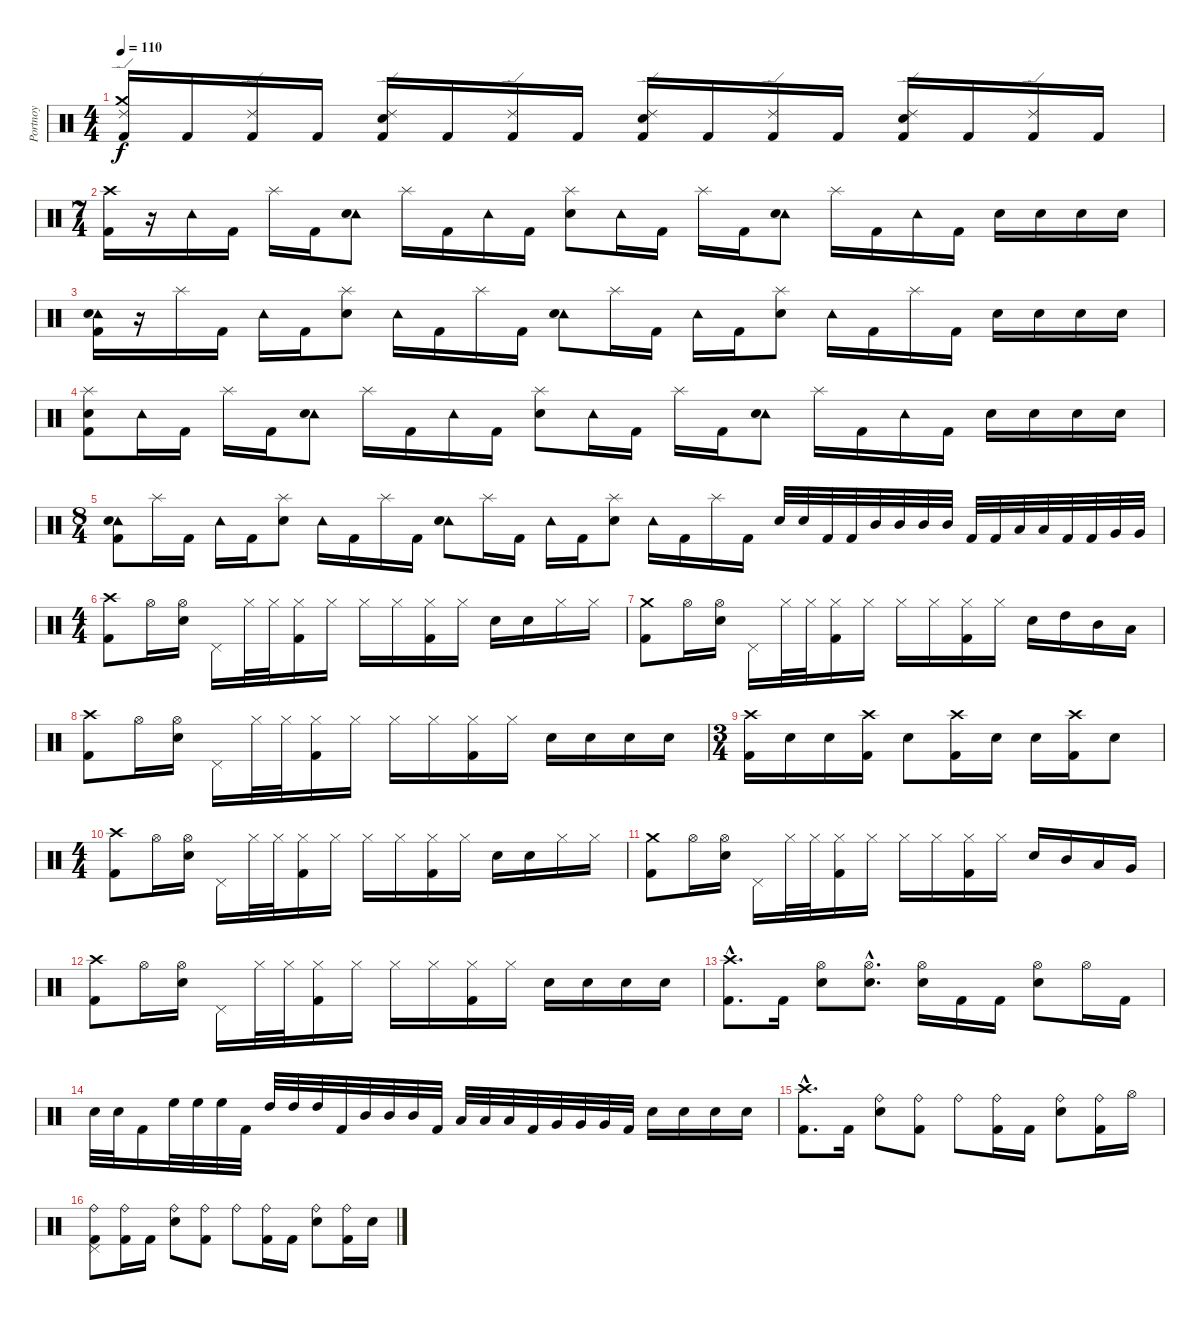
\track ("Portnoy" "Portnoy") {instrument percussion}
\staff {score}
\articulation defaults
\ts (4 4)
\tempo 110
\clef neutral
\ks c
("Kick (hit) 2" "Crash medium (hit)" "Ride (edge) 2").16{dy f} "Kick (hit) 2".16 ("Kick (hit) 2" "Ride (edge) 2").16 "Kick (hit) 2".16 ("Kick (hit) 2" "Ride (edge) 2" "Snare (hit) 2").16 "Kick (hit) 2".16 ("Kick (hit) 2" "Ride (edge) 2").16 "Kick (hit) 2".16 ("Kick (hit) 2" "Ride (edge) 2" "Snare (hit) 2").16 "Kick (hit) 2".16 ("Kick (hit) 2" "Ride (edge) 2").16 "Kick (hit) 2".16 ("Kick (hit) 2" "Ride (edge) 2" "Snare (hit) 2").16 "Kick (hit) 2".16 ("Kick (hit) 2" "Ride (edge) 2").16 "Kick (hit) 2".16 |
\ts (7 4)
("Kick (hit) 2" "Crash high (hit)").16 r.16 "Tambourine (hit)".16 "Kick (hit) 2".16 "Splash (hit)".16 "Kick (hit) 2".16 ("Tambourine (hit)" "Snare (hit) 2").8 "Splash (hit)".16 "Kick (hit) 2".16 "Tambourine (hit)".16 "Kick (hit) 2".16 ("Splash (hit)" "Snare (hit) 2").8 "Tambourine (hit)".16 "Kick (hit) 2".16 "Splash (hit)".16 "Kick (hit) 2".16 ("Tambourine (hit)" "Snare (hit) 2").8 "Splash (hit)".16 "Kick (hit) 2".16 "Tambourine (hit)".16 "Kick (hit) 2".16 "Snare (hit) 2".16 "Snare (hit) 2".16 "Snare (hit) 2".16 "Snare (hit) 2".16 |
("Kick (hit) 2" "Tambourine (hit)" "Snare (hit) 2").16 r.16 "Splash (hit)".16 "Kick (hit) 2".16 "Tambourine (hit)".16 "Kick (hit) 2".16 ("Splash (hit)" "Snare (hit) 2").8 "Tambourine (hit)".16 "Kick (hit) 2".16 "Splash (hit)".16 "Kick (hit) 2".16 ("Tambourine (hit)" "Snare (hit) 2").8 "Splash (hit)".16 "Kick (hit) 2".16 "Tambourine (hit)".16 "Kick (hit) 2".16 ("Splash (hit)" "Snare (hit) 2").8 "Tambourine (hit)".16 "Kick (hit) 2".16 "Splash (hit)".16 "Kick (hit) 2".16 "Snare (hit) 2".16 "Snare (hit) 2".16 "Snare (hit) 2".16 "Snare (hit) 2".16 |
("Kick (hit) 2" "Splash (hit)" "Snare (hit) 2").8 "Tambourine (hit)".16 "Kick (hit) 2".16 "Splash (hit)".16 "Kick (hit) 2".16 ("Tambourine (hit)" "Snare (hit) 2").8 "Splash (hit)".16 "Kick (hit) 2".16 "Tambourine (hit)".16 "Kick (hit) 2".16 ("Splash (hit)" "Snare (hit) 2").8 "Tambourine (hit)".16 "Kick (hit) 2".16 "Splash (hit)".16 "Kick (hit) 2".16 ("Tambourine (hit)" "Snare (hit) 2").8 "Splash (hit)".16 "Kick (hit) 2".16 "Tambourine (hit)".16 "Kick (hit) 2".16 "Snare (hit) 2".16 "Snare (hit) 2".16 "Snare (hit) 2".16 "Snare (hit) 2".16 |
\ts (8 4)
("Kick (hit) 2" "Tambourine (hit)" "Snare (hit) 2").8 "Splash (hit)".16 "Kick (hit) 2".16 "Tambourine (hit)".16 "Kick (hit) 2".16 ("Splash (hit)" "Snare (hit) 2").8 "Tambourine (hit)".16 "Kick (hit) 2".16 "Splash (hit)".16 "Kick (hit) 2".16 ("Tambourine (hit)" "Snare (hit) 2").8 "Splash (hit)".16 "Kick (hit) 2".16 "Tambourine (hit)".16 "Kick (hit) 2".16 ("Splash (hit)" "Snare (hit) 2").8 "Tambourine (hit)".16 "Kick (hit) 2".16 "Splash (hit)".16 "Kick (hit) 2".16 "Snare (hit) 2".32 "Snare (hit) 2".32 "Kick (hit) 2".32 "Kick (hit) 2".32 "Mid Tom (hit)".32 "Mid Tom (hit)".32 "Mid Tom (hit)".32 "Mid Tom (hit)".32 "Kick (hit) 2".32 "Kick (hit) 2".32 "Low Tom (hit)".32 "Low Tom (hit)".32 "Kick (hit) 2".32 "Kick (hit) 2".32 "Very Low Tom (hit)".32 "Very Low Tom (hit)".32 |
\ts (4 4)
("Kick (hit) 2" "Crash high (hit)").8 "Hi-Hat (open)".16 ("Hi-Hat (open)" "Snare (hit) 2").16 "Pedal Hi-Hat (hit)".16 "Hi-Hat (closed)".32 "Hi-Hat (closed)".32 ("Kick (hit) 2" "Hi-Hat (closed)").16 "Hi-Hat (closed)".16 "Hi-Hat (closed)".16 "Hi-Hat (closed)".16 ("Kick (hit) 2" "Hi-Hat (closed)").16 "Hi-Hat (closed)".16 "Snare (hit) 2".16 "Snare (hit) 2".16 "Hi-Hat (closed)".16 "Hi-Hat (closed)".16 |
("Kick (hit) 2" "Crash medium (hit)").8 "Hi-Hat (open)".16 ("Hi-Hat (open)" "Snare (hit) 2").16 "Pedal Hi-Hat (hit)".16 "Hi-Hat (closed)".32 "Hi-Hat (closed)".32 ("Kick (hit) 2" "Hi-Hat (closed)").16 "Hi-Hat (closed)".16 "Hi-Hat (closed)".16 "Hi-Hat (closed)".16 ("Kick (hit) 2" "Hi-Hat (closed)").16 "Hi-Hat (closed)".16 "Snare (hit) 2".16 "High Tom (hit)".16 "Mid Tom (hit)".16 "Low Tom (hit)".16 |
("Kick (hit) 2" "Crash high (hit)").8 "Hi-Hat (open)".16 ("Hi-Hat (open)" "Snare (hit) 2").16 "Pedal Hi-Hat (hit)".16 "Hi-Hat (closed)".32 "Hi-Hat (closed)".32 ("Kick (hit) 2" "Hi-Hat (closed)").16 "Hi-Hat (closed)".16 "Hi-Hat (closed)".16 "Hi-Hat (closed)".16 ("Kick (hit) 2" "Hi-Hat (closed)").16 "Hi-Hat (closed)".16 "Snare (hit) 2".16 "Snare (hit) 2".16 "Snare (hit) 2".16 "Snare (hit) 2".16 |
\ts (3 4)
("Kick (hit) 2" "Crash high (hit)").16 "Snare (hit) 2".16 "Snare (hit) 2".16 ("Kick (hit) 2" "Crash high (hit)").16 "Snare (hit) 2".8 ("Kick (hit) 2" "Crash high (hit)").16 "Snare (hit) 2".16 "Snare (hit) 2".16 ("Kick (hit) 2" "Crash high (hit)").16 "Snare (hit) 2".8 |
\ts (4 4)
("Kick (hit) 2" "Crash high (hit)").8 "Hi-Hat (open)".16 ("Hi-Hat (open)" "Snare (hit) 2").16 "Pedal Hi-Hat (hit)".16 "Hi-Hat (closed)".32 "Hi-Hat (closed)".32 ("Kick (hit) 2" "Hi-Hat (closed)").16 "Hi-Hat (closed)".16 "Hi-Hat (closed)".16 "Hi-Hat (closed)".16 ("Kick (hit) 2" "Hi-Hat (closed)").16 "Hi-Hat (closed)".16 "Snare (hit) 2".16 "Snare (hit) 2".16 "Hi-Hat (closed)".16 "Hi-Hat (closed)".16 |
("Kick (hit) 2" "Crash medium (hit)").8 "Hi-Hat (open)".16 ("Hi-Hat (open)" "Snare (hit) 2").16 "Pedal Hi-Hat (hit)".16 "Hi-Hat (closed)".32 "Hi-Hat (closed)".32 ("Kick (hit) 2" "Hi-Hat (closed)").16 "Hi-Hat (closed)".16 "Hi-Hat (closed)".16 "Hi-Hat (closed)".16 ("Kick (hit) 2" "Hi-Hat (closed)").16 "Hi-Hat (closed)".16 "Snare (hit) 2".16 "Mid Tom (hit)".16 "Low Tom (hit)".16 "Very Low Tom (hit)".16 |
("Kick (hit) 2" "Crash high (hit)").8 "Hi-Hat (open)".16 ("Hi-Hat (open)" "Snare (hit) 2").16 "Pedal Hi-Hat (hit)".16 "Hi-Hat (closed)".32 "Hi-Hat (closed)".32 ("Kick (hit) 2" "Hi-Hat (closed)").16 "Hi-Hat (closed)".16 "Hi-Hat (closed)".16 "Hi-Hat (closed)".16 ("Kick (hit) 2" "Hi-Hat (closed)").16 "Hi-Hat (closed)".16 "Snare (hit) 2".16 "Snare (hit) 2".16 "Snare (hit) 2".16 "Snare (hit) 2".16 |
("Kick (hit) 2"{hac} "Crash high (hit)"{hac}).8{d} "Kick (hit) 2".16 ("Hi-Hat (open)" "Snare (hit) 2").8 ("Hi-Hat (open)"{hac} "Snare (hit) 2"{hac}).8{d} ("Hi-Hat (open)" "Snare (hit) 2").16 "Kick (hit) 2".16 "Kick (hit) 2".16 ("Hi-Hat (open)" "Snare (hit) 2").8 "Hi-Hat (open)".16 "Kick (hit) 2".16 |
"Snare (hit) 2".32 "Snare (hit) 2".32 "Kick (hit) 2".16 "High Floor Tom (hit)".32 "High Floor Tom (hit)".32 "High Floor Tom (hit)".32 "Kick (hit) 2".32 "High Tom (hit)".32 "High Tom (hit)".32 "High Tom (hit)".32 "Kick (hit) 2".32 "Mid Tom (hit)".32 "Mid Tom (hit)".32 "Mid Tom (hit)".32 "Kick (hit) 2".32 "Low Tom (hit)".32 "Low Tom (hit)".32 "Low Tom (hit)".32 "Kick (hit) 2".32 "Very Low Tom (hit)".32 "Very Low Tom (hit)".32 "Very Low Tom (hit)".32 "Kick (hit) 2".32 "Snare (hit) 2".16 "Snare (hit) 2".16 "Snare (hit) 2".16 "Snare (hit) 2".16 |
("Kick (hit) 2"{hac} "Crash high (hit)"{hac}).8{d} "Kick (hit) 2".16 ("Ride (bell)" "Snare (hit) 2").8 ("Kick (hit) 2" "Ride (bell)").8 "Ride (bell)".8 ("Kick (hit) 2" "Ride (bell)").16 "Kick (hit) 2".16 ("Ride (bell)" "Snare (hit) 2").8 ("Kick (hit) 2" "Ride (bell)").16 "Hi-Hat (open)".16 |
("Kick (hit) 2" "Pedal Hi-Hat (hit)" "Ride (bell)").8 ("Kick (hit) 2" "Ride (bell)").16 "Kick (hit) 2".16 ("Ride (bell)" "Snare (hit) 2").8 ("Kick (hit) 2" "Ride (bell)").8 "Ride (bell)".8 ("Kick (hit) 2" "Ride (bell)").16 "Kick (hit) 2".16 ("Ride (bell)" "Snare (hit) 2").8 ("Kick (hit) 2" "Ride (bell)").16 "Snare (hit) 2".16
